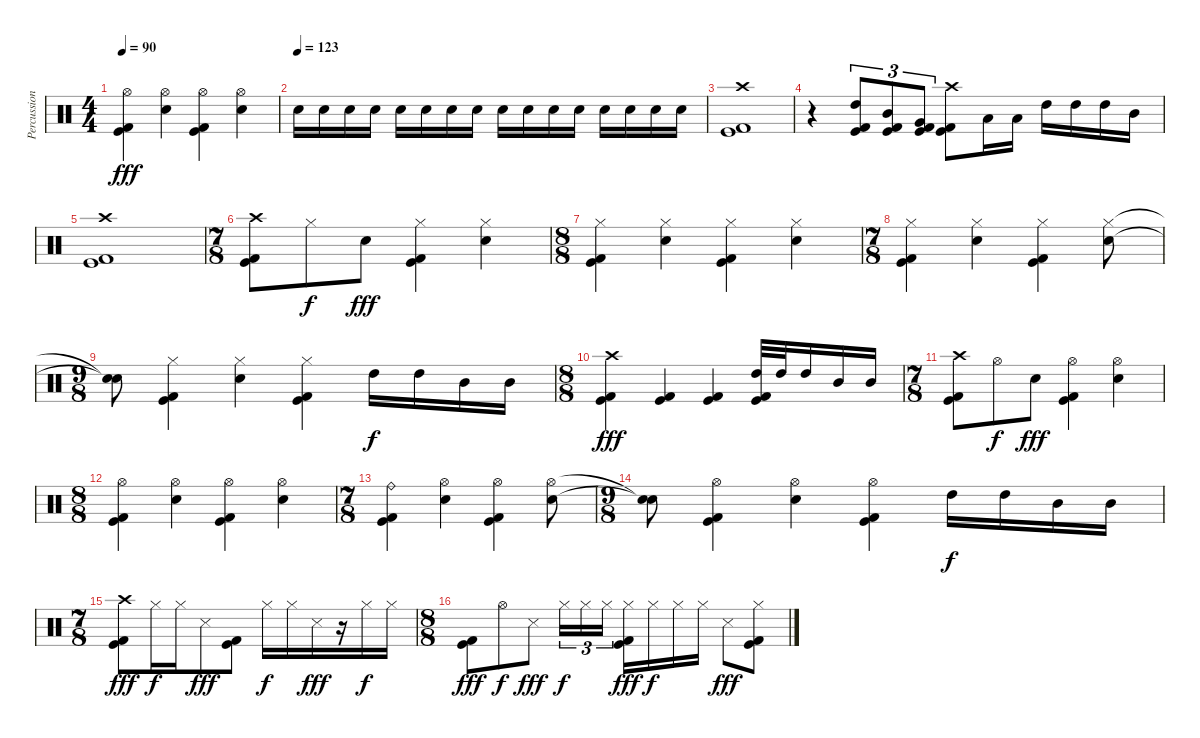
\track ("Percussion" "Percussion") {instrument percussion}
\staff {score}
\articulation defaults
\ts (4 4)
\tempo 90
\clef neutral
\ks c
("Hi-Hat (open)" "Kick (hit)" "Kick (hit) 2").4{dy fff} ("Hi-Hat (open)" "Electric Snare (hit)").4 ("Hi-Hat (open)" "Kick (hit)" "Kick (hit) 2").4 ("Hi-Hat (open)" "Electric Snare (hit)").4 |
\tempo (123)
"Electric Snare (hit)".16 "Electric Snare (hit)".16 "Electric Snare (hit)".16 "Electric Snare (hit)".16 "Electric Snare (hit)".16 "Electric Snare (hit)".16 "Electric Snare (hit)".16 "Electric Snare (hit)".16 "Electric Snare (hit)".16 "Electric Snare (hit)".16 "Electric Snare (hit)".16 "Electric Snare (hit)".16 "Electric Snare (hit)".16 "Electric Snare (hit)".16 "Electric Snare (hit)".16 "Electric Snare (hit)".16 |
("Kick (hit) 2" "Kick (hit)" "Crash high (hit)").1 |
r.4 ("High Tom (hit)" "Kick (hit) 2" "Kick (hit)").8{tu (3 2)} ("Mid Tom (hit)" "Kick (hit) 2" "Kick (hit)").8{tu (3 2)} ("Very Low Tom (hit)" "Kick (hit) 2" "Kick (hit)").8{tu (3 2)} ("Crash high (hit)" "Kick (hit) 2" "Kick (hit)").8 "Low Tom (hit)".16 "Low Tom (hit)".16 "High Tom (hit)".16 "High Tom (hit)".16 "High Tom (hit)".16 "Mid Tom (hit)".16 |
("Crash high (hit)" "Kick (hit) 2" "Kick (hit)").1 |
\ts (7 8)
("Crash high (hit)" "Kick (hit) 2" "Kick (hit)").8 "Hi-Hat (closed)".8{dy f} "Electric Snare (hit)".8{dy fff} ("Hi-Hat (closed)" "Kick (hit) 2" "Kick (hit)").4 ("Hi-Hat (closed)" "Electric Snare (hit)").4 |
\ts (8 8)
("Hi-Hat (closed)" "Kick (hit) 2" "Kick (hit)").4 ("Hi-Hat (closed)" "Electric Snare (hit)").4 ("Hi-Hat (closed)" "Kick (hit) 2" "Kick (hit)").4 ("Hi-Hat (closed)" "Electric Snare (hit)").4 |
\ts (7 8)
("Hi-Hat (closed)" "Kick (hit) 2" "Kick (hit)").4 ("Hi-Hat (closed)" "Electric Snare (hit)").4 ("Hi-Hat (closed)" "Kick (hit) 2" "Kick (hit)").4 ("Hi-Hat (closed)" "Electric Snare (hit)").8 |
\ts (9 8)
("Snare (hit)"{t} "Snare (hit)"{t}).8 ("Hi-Hat (closed)" "Kick (hit) 2" "Kick (hit)").4 ("Hi-Hat (closed)" "Electric Snare (hit)").4 ("Hi-Hat (closed)" "Kick (hit) 2" "Kick (hit)").4 "High Tom (hit)".16{dy f} "High Tom (hit)".16 "Mid Tom (hit)".16 "Mid Tom (hit)".16 |
\ts (8 8)
("Crash high (hit)" "Kick (hit) 2" "Kick (hit)").4{dy fff} ("Kick (hit) 2" "Kick (hit)").4 ("Kick (hit) 2" "Kick (hit)").4 ("High Tom (hit)" "Kick (hit) 2" "Kick (hit)").32 "High Tom (hit)".32 "High Tom (hit)".16 "Mid Tom (hit)".16 "Mid Tom (hit)".16 |
\ts (7 8)
("Crash high (hit)" "Kick (hit) 2" "Kick (hit)").8 "Hi-Hat (open)".8{dy f} "Electric Snare (hit)".8{dy fff} ("Hi-Hat (open)" "Kick (hit) 2" "Kick (hit)").4 ("Hi-Hat (open)" "Electric Snare (hit)").4 |
\ts (8 8)
("Hi-Hat (open)" "Kick (hit) 2" "Kick (hit)").4 ("Hi-Hat (open)" "Electric Snare (hit)").4 ("Hi-Hat (open)" "Kick (hit) 2" "Kick (hit)").4 ("Hi-Hat (open)" "Electric Snare (hit)").4 |
\ts (7 8)
("Ride (bell)" "Kick (hit) 2" "Kick (hit)").4 ("Hi-Hat (open)" "Electric Snare (hit)").4 ("Hi-Hat (open)" "Kick (hit) 2" "Kick (hit)").4 ("Hi-Hat (open)" "Electric Snare (hit)").8 |
\ts (9 8)
("Snare (hit)"{t} "Snare (hit)"{t}).8 ("Hi-Hat (open)" "Kick (hit) 2" "Kick (hit)").4 ("Hi-Hat (open)" "Electric Snare (hit)").4 ("Hi-Hat (open)" "Kick (hit) 2" "Kick (hit)").4 "High Tom (hit)".16{dy f} "High Tom (hit)".16 "Mid Tom (hit)".16 "Mid Tom (hit)".16 |
\ts (7 8)
("Crash high (hit)" "Kick (hit) 2" "Kick (hit)").8{dy fff} "Hi-Hat (closed)".16{dy f} "Hi-Hat (closed)".16 "Snare (side stick) 3".8{dy fff} ("Kick (hit) 2" "Kick (hit)").8 "Hi-Hat (closed)".16{dy f} "Hi-Hat (closed)".16 "Snare (side stick) 3".16{dy fff} r.16 "Hi-Hat (closed)".16{dy f} "Hi-Hat (closed)".16 |
\ts (8 8)
("Kick (hit) 2" "Kick (hit)").8{dy fff} "Hi-Hat (open)".8{dy f} "Snare (side stick) 3".8{dy fff} "Hi-Hat (closed)".16{tu (3 2) dy f} "Hi-Hat (closed)".16{tu (3 2)} "Hi-Hat (closed)".16{tu (3 2)} ("Hi-Hat (closed)" "Kick (hit) 2" "Kick (hit)").16{dy fff} "Hi-Hat (closed)".16{dy f} "Hi-Hat (closed)".16 "Hi-Hat (closed)".16 "Snare (side stick) 3".8{dy fff} ("Hi-Hat (closed)" "Kick (hit) 2" "Kick (hit)").8
